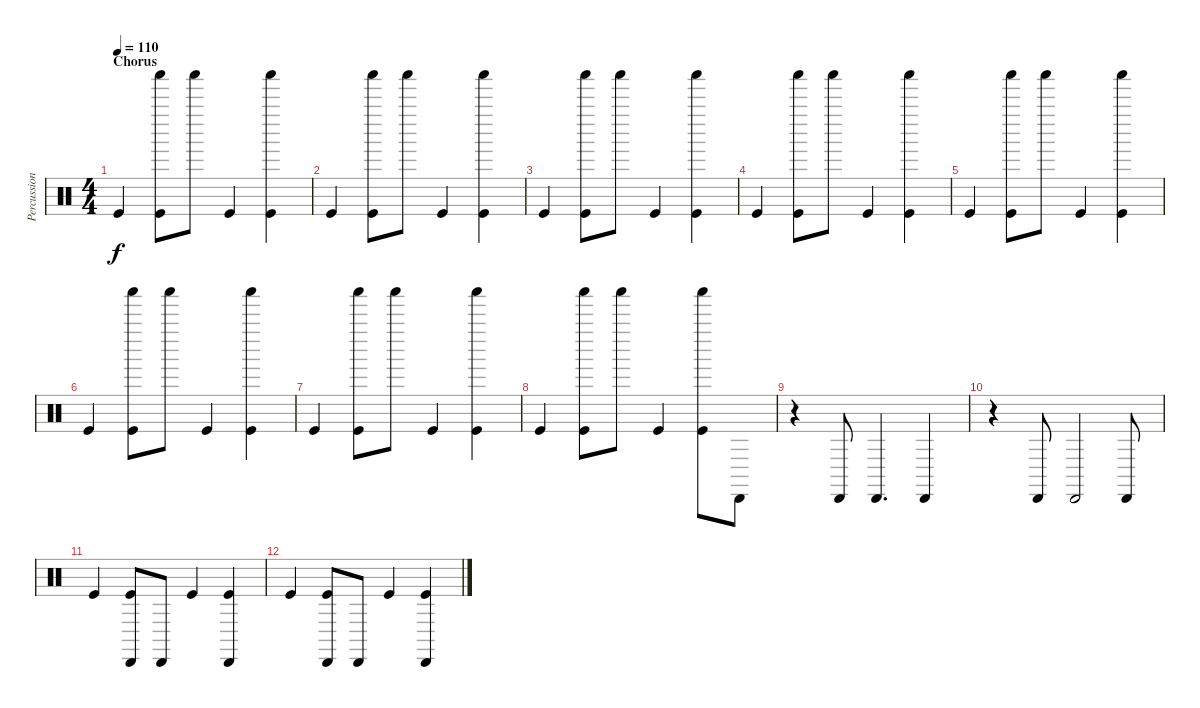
\track ("Percussion" "Percussion") {instrument percussion}
\staff {score}
\articulation defaults
\ts (4 4)
\section ("" "Chorus")
\tempo 110
\clef neutral
\ks c "Kick (hit)".4{dy f}
("Shaker (hit)" "Kick (hit)").8 "Shaker (hit)".8 "Kick (hit)".4 ("Shaker (hit)" "Kick (hit)").4 |
"Kick (hit)".4 ("Shaker (hit)" "Kick (hit)").8 "Shaker (hit)".8 "Kick (hit)".4 ("Shaker (hit)" "Kick (hit)").4 |
"Kick (hit)".4 ("Shaker (hit)" "Kick (hit)").8 "Shaker (hit)".8 "Kick (hit)".4 ("Shaker (hit)" "Kick (hit)").4 |
"Kick (hit)".4 ("Shaker (hit)" "Kick (hit)").8 "Shaker (hit)".8 "Kick (hit)".4 ("Shaker (hit)" "Kick (hit)").4 |
"Kick (hit)".4 ("Shaker (hit)" "Kick (hit)").8 "Shaker (hit)".8 "Kick (hit)".4 ("Shaker (hit)" "Kick (hit)").4 |
"Kick (hit)".4 ("Shaker (hit)" "Kick (hit)").8 "Shaker (hit)".8 "Kick (hit)".4 ("Shaker (hit)" "Kick (hit)").4 |
"Kick (hit)".4 ("Shaker (hit)" "Kick (hit)").8 "Shaker (hit)".8 "Kick (hit)".4 ("Shaker (hit)" "Kick (hit)").4 |
"Kick (hit)".4 ("Shaker (hit)" "Kick (hit)").8 "Shaker (hit)".8 "Kick (hit)".4 ("Shaker (hit)" "Kick (hit)").8 "Cabasa (hit)".8 |
r.4 "Cabasa (hit)".8 "Cabasa (hit)".4{d} "Cabasa (hit)".4 |
r.4 "Cabasa (hit)".8 "Cabasa (hit)".2 "Cabasa (hit)".8 |
"Kick (hit)".4 ("Cabasa (hit)" "Kick (hit)").8 "Cabasa (hit)".8 "Kick (hit)".4 ("Cabasa (hit)" "Kick (hit)").4 |
"Kick (hit)".4 ("Cabasa (hit)" "Kick (hit)").8 "Cabasa (hit)".8 "Kick (hit)".4 ("Cabasa (hit)" "Kick (hit)").4
